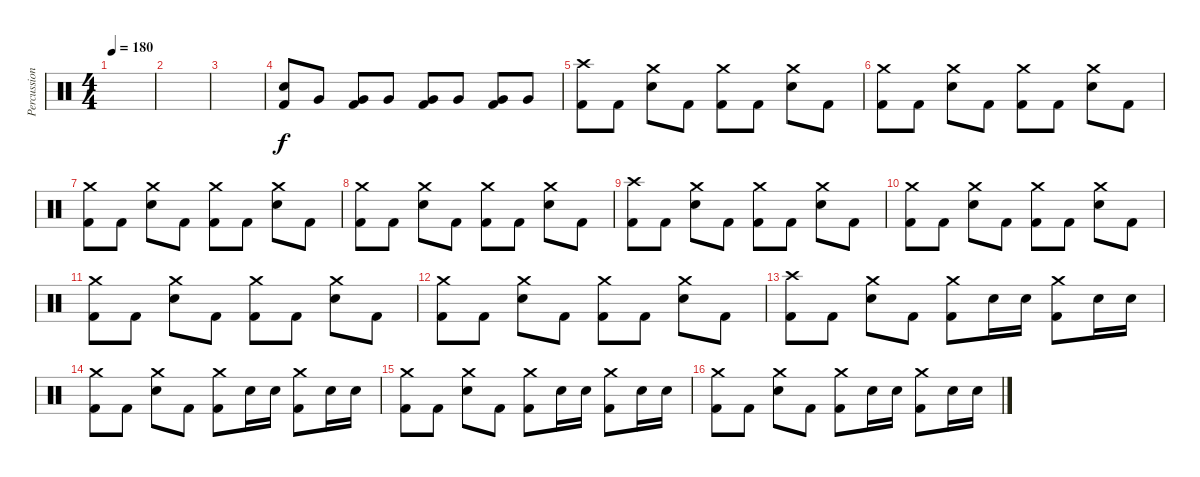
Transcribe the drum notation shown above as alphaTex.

\track ("Percussion" "Percussion") {instrument percussion}
\staff {score}
\articulation defaults
\ts (4 4)
\tempo 180
\clef neutral
\ks c
|
|
|
("Electric Snare (hit)" "Kick (hit) 2").8 "Very Low Tom (hit)".8 ("Very Low Tom (hit)" "Kick (hit) 2").8 "Very Low Tom (hit)".8 ("Very Low Tom (hit)" "Kick (hit) 2").8 "Very Low Tom (hit)".8 ("Very Low Tom (hit)" "Kick (hit) 2").8 "Very Low Tom (hit)".8 |
("Crash high (hit)" "Kick (hit) 2").8 "Kick (hit) 2".8 ("Crash medium (hit)" "Electric Snare (hit)").8 "Kick (hit) 2".8 ("Crash medium (hit)" "Kick (hit) 2").8 "Kick (hit) 2".8 ("Crash medium (hit)" "Electric Snare (hit)").8 "Kick (hit) 2".8 |
("Crash medium (hit)" "Kick (hit) 2").8 "Kick (hit) 2".8 ("Crash medium (hit)" "Electric Snare (hit)").8 "Kick (hit) 2".8 ("Crash medium (hit)" "Kick (hit) 2").8 "Kick (hit) 2".8 ("Crash medium (hit)" "Electric Snare (hit)").8 "Kick (hit) 2".8 |
("Crash medium (hit)" "Kick (hit) 2").8 "Kick (hit) 2".8 ("Crash medium (hit)" "Electric Snare (hit)").8 "Kick (hit) 2".8 ("Crash medium (hit)" "Kick (hit) 2").8 "Kick (hit) 2".8 ("Crash medium (hit)" "Electric Snare (hit)").8 "Kick (hit) 2".8 |
("Crash medium (hit)" "Kick (hit) 2").8 "Kick (hit) 2".8 ("Crash medium (hit)" "Electric Snare (hit)").8 "Kick (hit) 2".8 ("Crash medium (hit)" "Kick (hit) 2").8 "Kick (hit) 2".8 ("Crash medium (hit)" "Electric Snare (hit)").8 "Kick (hit) 2".8 |
("Crash high (hit)" "Kick (hit) 2").8 "Kick (hit) 2".8 ("Crash medium (hit)" "Electric Snare (hit)").8 "Kick (hit) 2".8 ("Crash medium (hit)" "Kick (hit) 2").8 "Kick (hit) 2".8 ("Crash medium (hit)" "Electric Snare (hit)").8 "Kick (hit) 2".8 |
("Crash medium (hit)" "Kick (hit) 2").8 "Kick (hit) 2".8 ("Crash medium (hit)" "Electric Snare (hit)").8 "Kick (hit) 2".8 ("Crash medium (hit)" "Kick (hit) 2").8 "Kick (hit) 2".8 ("Crash medium (hit)" "Electric Snare (hit)").8 "Kick (hit) 2".8 |
("Crash medium (hit)" "Kick (hit) 2").8 "Kick (hit) 2".8 ("Crash medium (hit)" "Electric Snare (hit)").8 "Kick (hit) 2".8 ("Crash medium (hit)" "Kick (hit) 2").8 "Kick (hit) 2".8 ("Crash medium (hit)" "Electric Snare (hit)").8 "Kick (hit) 2".8 |
("Crash medium (hit)" "Kick (hit) 2").8 "Kick (hit) 2".8 ("Crash medium (hit)" "Electric Snare (hit)").8 "Kick (hit) 2".8 ("Crash medium (hit)" "Kick (hit) 2").8 "Kick (hit) 2".8 ("Crash medium (hit)" "Electric Snare (hit)").8 "Kick (hit) 2".8 |
("Crash high (hit)" "Kick (hit) 2").8 "Kick (hit) 2".8 ("Crash medium (hit)" "Electric Snare (hit)").8 "Kick (hit) 2".8 ("Crash medium (hit)" "Kick (hit) 2").8 "Electric Snare (hit)".16 "Electric Snare (hit)".16 ("Crash medium (hit)" "Kick (hit) 2").8 "Electric Snare (hit)".16 "Electric Snare (hit)".16 |
("Crash medium (hit)" "Kick (hit) 2").8 "Kick (hit) 2".8 ("Crash medium (hit)" "Electric Snare (hit)").8 "Kick (hit) 2".8 ("Crash medium (hit)" "Kick (hit) 2").8 "Electric Snare (hit)".16 "Electric Snare (hit)".16 ("Crash medium (hit)" "Kick (hit) 2").8 "Electric Snare (hit)".16 "Electric Snare (hit)".16 |
("Crash medium (hit)" "Kick (hit) 2").8 "Kick (hit) 2".8 ("Crash medium (hit)" "Electric Snare (hit)").8 "Kick (hit) 2".8 ("Crash medium (hit)" "Kick (hit) 2").8 "Electric Snare (hit)".16 "Electric Snare (hit)".16 ("Crash medium (hit)" "Kick (hit) 2").8 "Electric Snare (hit)".16 "Electric Snare (hit)".16 |
("Crash medium (hit)" "Kick (hit) 2").8 "Kick (hit) 2".8 ("Crash medium (hit)" "Electric Snare (hit)").8 "Kick (hit) 2".8 ("Crash medium (hit)" "Kick (hit) 2").8 "Electric Snare (hit)".16 "Electric Snare (hit)".16 ("Crash medium (hit)" "Kick (hit) 2").8 "Electric Snare (hit)".16 "Electric Snare (hit)".16
